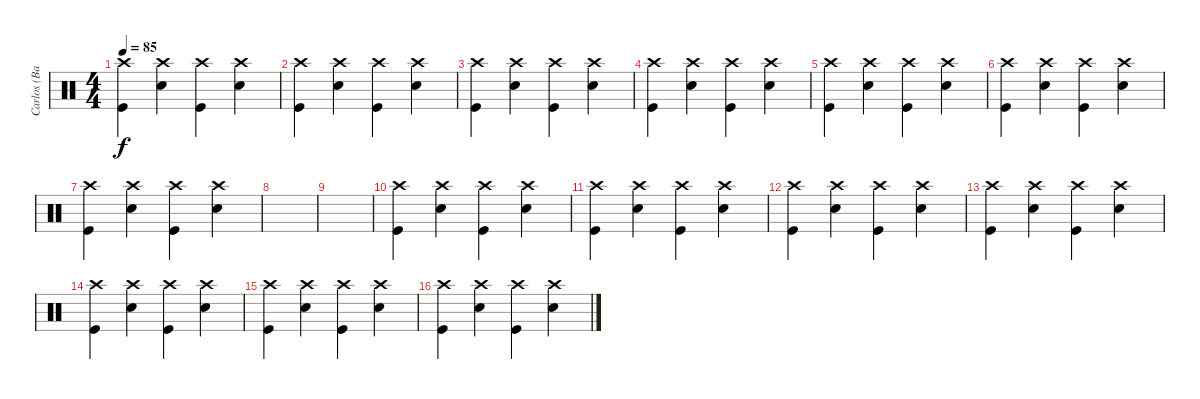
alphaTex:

\track ("Carlos (Batería)" "Carlos (Ba") {instrument percussion}
\staff {score}
\articulation defaults
\ts (4 4)
\tempo 85
\clef neutral
\ks c
("Crash high (hit)" "Kick (hit)").4{dy f} ("Crash high (hit)" "Snare (hit) 2").4 ("Crash high (hit)" "Kick (hit)").4 ("Crash high (hit)" "Snare (hit) 2").4 |
("Crash high (hit)" "Kick (hit)").4 ("Crash high (hit)" "Snare (hit) 2").4 ("Crash high (hit)" "Kick (hit)").4 ("Crash high (hit)" "Snare (hit) 2").4 |
("Crash high (hit)" "Kick (hit)").4 ("Crash high (hit)" "Snare (hit) 2").4 ("Crash high (hit)" "Kick (hit)").4 ("Crash high (hit)" "Snare (hit) 2").4 |
("Crash high (hit)" "Kick (hit)").4 ("Crash high (hit)" "Snare (hit) 2").4 ("Crash high (hit)" "Kick (hit)").4 ("Crash high (hit)" "Snare (hit) 2").4 |
("Crash high (hit)" "Kick (hit)").4 ("Crash high (hit)" "Snare (hit) 2").4 ("Crash high (hit)" "Kick (hit)").4 ("Crash high (hit)" "Snare (hit) 2").4 |
("Crash high (hit)" "Kick (hit)").4 ("Crash high (hit)" "Snare (hit) 2").4 ("Crash high (hit)" "Kick (hit)").4 ("Crash high (hit)" "Snare (hit) 2").4 |
("Crash high (hit)" "Kick (hit)").4 ("Crash high (hit)" "Snare (hit) 2").4 ("Crash high (hit)" "Kick (hit)").4 ("Crash high (hit)" "Snare (hit) 2").4 |
|
|
("Crash high (hit)" "Kick (hit)").4 ("Crash high (hit)" "Snare (hit) 2").4 ("Crash high (hit)" "Kick (hit)").4 ("Crash high (hit)" "Snare (hit) 2").4 |
("Crash high (hit)" "Kick (hit)").4 ("Crash high (hit)" "Snare (hit) 2").4 ("Crash high (hit)" "Kick (hit)").4 ("Crash high (hit)" "Snare (hit) 2").4 |
("Crash high (hit)" "Kick (hit)").4 ("Crash high (hit)" "Snare (hit) 2").4 ("Crash high (hit)" "Kick (hit)").4 ("Crash high (hit)" "Snare (hit) 2").4 |
("Crash high (hit)" "Kick (hit)").4 ("Crash high (hit)" "Snare (hit) 2").4 ("Crash high (hit)" "Kick (hit)").4 ("Crash high (hit)" "Snare (hit) 2").4 |
("Crash high (hit)" "Kick (hit)").4 ("Crash high (hit)" "Snare (hit) 2").4 ("Crash high (hit)" "Kick (hit)").4 ("Crash high (hit)" "Snare (hit) 2").4 |
("Crash high (hit)" "Kick (hit)").4 ("Crash high (hit)" "Snare (hit) 2").4 ("Crash high (hit)" "Kick (hit)").4 ("Crash high (hit)" "Snare (hit) 2").4 |
("Crash high (hit)" "Kick (hit)").4 ("Crash high (hit)" "Snare (hit) 2").4 ("Crash high (hit)" "Kick (hit)").4 ("Crash high (hit)" "Snare (hit) 2").4
